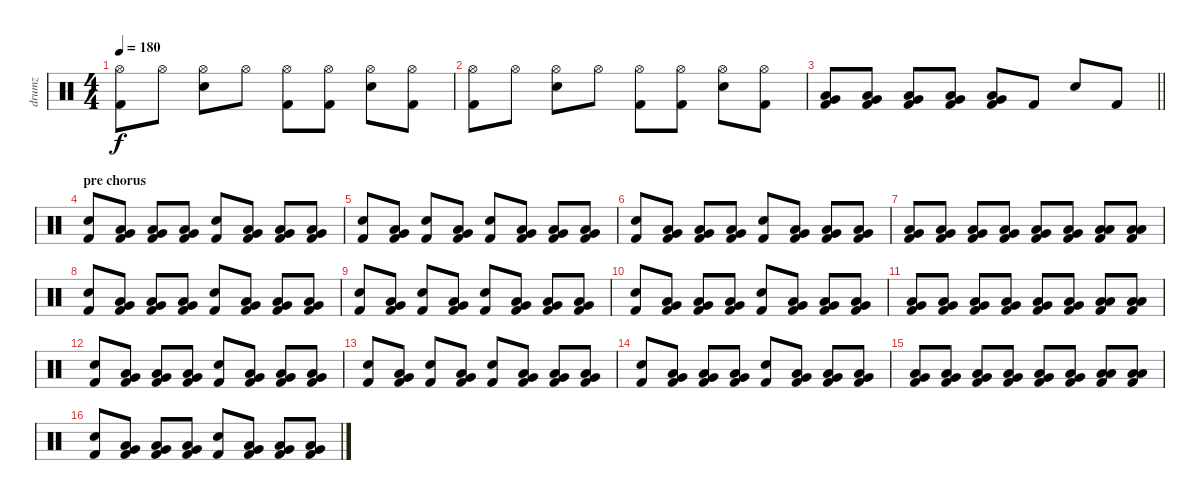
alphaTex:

\track ("drumz" "drumz") {instrument percussion}
\staff {score}
\articulation defaults
\ts (4 4)
\tempo 180
\clef neutral
\ks c
("Hi-Hat (open)" "Kick (hit) 2").8{dy f} "Hi-Hat (open)".8 ("Hi-Hat (open)" "Electric Snare (hit)").8 "Hi-Hat (open)".8 ("Hi-Hat (open)" "Kick (hit) 2").8 ("Hi-Hat (open)" "Kick (hit) 2").8 ("Hi-Hat (open)" "Electric Snare (hit)").8 ("Hi-Hat (open)" "Kick (hit) 2").8 |
("Hi-Hat (open)" "Kick (hit) 2").8 "Hi-Hat (open)".8 ("Hi-Hat (open)" "Electric Snare (hit)").8 "Hi-Hat (open)".8 ("Hi-Hat (open)" "Kick (hit) 2").8 ("Hi-Hat (open)" "Kick (hit) 2").8 ("Hi-Hat (open)" "Electric Snare (hit)").8 ("Hi-Hat (open)" "Kick (hit) 2").8 |
\barLineRight lightlight
("Low Tom (hit)" "Very Low Tom (hit)" "Kick (hit) 2").8 ("Low Tom (hit)" "Very Low Tom (hit)" "Kick (hit) 2").8 ("Low Tom (hit)" "Very Low Tom (hit)" "Kick (hit) 2").8 ("Low Tom (hit)" "Very Low Tom (hit)" "Kick (hit) 2").8 ("Very Low Tom (hit)" "Low Floor Tom (hit)" "Kick (hit) 2").8 "Kick (hit) 2".8 "Electric Snare (hit)".8 "Kick (hit) 2".8 |
\section ("" "pre chorus")
("Electric Snare (hit)" "Kick (hit) 2").8 ("Very Low Tom (hit)" "Low Floor Tom (hit)" "Kick (hit) 2").8 ("Very Low Tom (hit)" "Low Floor Tom (hit)" "Kick (hit) 2").8 ("Very Low Tom (hit)" "Low Floor Tom (hit)" "Kick (hit) 2").8 ("Electric Snare (hit)" "Kick (hit) 2").8 ("Very Low Tom (hit)" "Low Floor Tom (hit)" "Kick (hit) 2").8 ("Very Low Tom (hit)" "Low Floor Tom (hit)" "Kick (hit) 2").8 ("Very Low Tom (hit)" "Low Floor Tom (hit)" "Kick (hit) 2").8 |
("Electric Snare (hit)" "Kick (hit) 2").8 ("Very Low Tom (hit)" "Low Floor Tom (hit)" "Kick (hit) 2").8 ("Electric Snare (hit)" "Kick (hit) 2").8 ("Very Low Tom (hit)" "Low Floor Tom (hit)" "Kick (hit) 2").8 ("Electric Snare (hit)" "Kick (hit) 2").8 ("Very Low Tom (hit)" "Low Floor Tom (hit)" "Kick (hit) 2").8 ("Very Low Tom (hit)" "Low Floor Tom (hit)" "Kick (hit) 2").8 ("Very Low Tom (hit)" "Low Floor Tom (hit)" "Kick (hit) 2").8 |
("Electric Snare (hit)" "Kick (hit) 2").8 ("Very Low Tom (hit)" "Low Floor Tom (hit)" "Kick (hit) 2").8 ("Very Low Tom (hit)" "Low Floor Tom (hit)" "Kick (hit) 2").8 ("Very Low Tom (hit)" "Low Floor Tom (hit)" "Kick (hit) 2").8 ("Electric Snare (hit)" "Kick (hit) 2").8 ("Very Low Tom (hit)" "Low Floor Tom (hit)" "Kick (hit) 2").8 ("Very Low Tom (hit)" "Low Floor Tom (hit)" "Kick (hit) 2").8 ("Very Low Tom (hit)" "Low Floor Tom (hit)" "Kick (hit) 2").8 |
("Low Tom (hit)" "Very Low Tom (hit)" "Kick (hit) 2").8 ("Low Tom (hit)" "Very Low Tom (hit)" "Kick (hit) 2").8 ("Low Tom (hit)" "Very Low Tom (hit)" "Kick (hit) 2").8 ("Low Tom (hit)" "Very Low Tom (hit)" "Kick (hit) 2").8 ("Very Low Tom (hit)" "Low Floor Tom (hit)" "Kick (hit) 2").8 ("Very Low Tom (hit)" "Low Floor Tom (hit)" "Kick (hit) 2").8 ("Low Floor Tom (hit)" "Low Floor Tom (hit)" "Kick (hit) 2").8 ("Low Floor Tom (hit)" "Low Floor Tom (hit)" "Kick (hit) 2").8 |
("Electric Snare (hit)" "Kick (hit) 2").8 ("Very Low Tom (hit)" "Low Floor Tom (hit)" "Kick (hit) 2").8 ("Very Low Tom (hit)" "Low Floor Tom (hit)" "Kick (hit) 2").8 ("Very Low Tom (hit)" "Low Floor Tom (hit)" "Kick (hit) 2").8 ("Electric Snare (hit)" "Kick (hit) 2").8 ("Very Low Tom (hit)" "Low Floor Tom (hit)" "Kick (hit) 2").8 ("Very Low Tom (hit)" "Low Floor Tom (hit)" "Kick (hit) 2").8 ("Very Low Tom (hit)" "Low Floor Tom (hit)" "Kick (hit) 2").8 |
("Electric Snare (hit)" "Kick (hit) 2").8 ("Very Low Tom (hit)" "Low Floor Tom (hit)" "Kick (hit) 2").8 ("Electric Snare (hit)" "Kick (hit) 2").8 ("Very Low Tom (hit)" "Low Floor Tom (hit)" "Kick (hit) 2").8 ("Electric Snare (hit)" "Kick (hit) 2").8 ("Very Low Tom (hit)" "Low Floor Tom (hit)" "Kick (hit) 2").8 ("Very Low Tom (hit)" "Low Floor Tom (hit)" "Kick (hit) 2").8 ("Very Low Tom (hit)" "Low Floor Tom (hit)" "Kick (hit) 2").8 |
("Electric Snare (hit)" "Kick (hit) 2").8 ("Very Low Tom (hit)" "Low Floor Tom (hit)" "Kick (hit) 2").8 ("Very Low Tom (hit)" "Low Floor Tom (hit)" "Kick (hit) 2").8 ("Very Low Tom (hit)" "Low Floor Tom (hit)" "Kick (hit) 2").8 ("Electric Snare (hit)" "Kick (hit) 2").8 ("Very Low Tom (hit)" "Low Floor Tom (hit)" "Kick (hit) 2").8 ("Very Low Tom (hit)" "Low Floor Tom (hit)" "Kick (hit) 2").8 ("Very Low Tom (hit)" "Low Floor Tom (hit)" "Kick (hit) 2").8 |
("Low Tom (hit)" "Very Low Tom (hit)" "Kick (hit) 2").8 ("Low Tom (hit)" "Very Low Tom (hit)" "Kick (hit) 2").8 ("Low Tom (hit)" "Very Low Tom (hit)" "Kick (hit) 2").8 ("Low Tom (hit)" "Very Low Tom (hit)" "Kick (hit) 2").8 ("Very Low Tom (hit)" "Low Floor Tom (hit)" "Kick (hit) 2").8 ("Very Low Tom (hit)" "Low Floor Tom (hit)" "Kick (hit) 2").8 ("Low Floor Tom (hit)" "Low Floor Tom (hit)" "Kick (hit) 2").8 ("Low Floor Tom (hit)" "Low Floor Tom (hit)" "Kick (hit) 2").8 |
("Electric Snare (hit)" "Kick (hit) 2").8 ("Very Low Tom (hit)" "Low Floor Tom (hit)" "Kick (hit) 2").8 ("Very Low Tom (hit)" "Low Floor Tom (hit)" "Kick (hit) 2").8 ("Very Low Tom (hit)" "Low Floor Tom (hit)" "Kick (hit) 2").8 ("Electric Snare (hit)" "Kick (hit) 2").8 ("Very Low Tom (hit)" "Low Floor Tom (hit)" "Kick (hit) 2").8 ("Very Low Tom (hit)" "Low Floor Tom (hit)" "Kick (hit) 2").8 ("Very Low Tom (hit)" "Low Floor Tom (hit)" "Kick (hit) 2").8 |
("Electric Snare (hit)" "Kick (hit) 2").8 ("Very Low Tom (hit)" "Low Floor Tom (hit)" "Kick (hit) 2").8 ("Electric Snare (hit)" "Kick (hit) 2").8 ("Very Low Tom (hit)" "Low Floor Tom (hit)" "Kick (hit) 2").8 ("Electric Snare (hit)" "Kick (hit) 2").8 ("Very Low Tom (hit)" "Low Floor Tom (hit)" "Kick (hit) 2").8 ("Very Low Tom (hit)" "Low Floor Tom (hit)" "Kick (hit) 2").8 ("Very Low Tom (hit)" "Low Floor Tom (hit)" "Kick (hit) 2").8 |
("Electric Snare (hit)" "Kick (hit) 2").8 ("Very Low Tom (hit)" "Low Floor Tom (hit)" "Kick (hit) 2").8 ("Very Low Tom (hit)" "Low Floor Tom (hit)" "Kick (hit) 2").8 ("Very Low Tom (hit)" "Low Floor Tom (hit)" "Kick (hit) 2").8 ("Electric Snare (hit)" "Kick (hit) 2").8 ("Very Low Tom (hit)" "Low Floor Tom (hit)" "Kick (hit) 2").8 ("Very Low Tom (hit)" "Low Floor Tom (hit)" "Kick (hit) 2").8 ("Very Low Tom (hit)" "Low Floor Tom (hit)" "Kick (hit) 2").8 |
("Low Tom (hit)" "Very Low Tom (hit)" "Kick (hit) 2").8 ("Low Tom (hit)" "Very Low Tom (hit)" "Kick (hit) 2").8 ("Low Tom (hit)" "Very Low Tom (hit)" "Kick (hit) 2").8 ("Low Tom (hit)" "Very Low Tom (hit)" "Kick (hit) 2").8 ("Very Low Tom (hit)" "Low Floor Tom (hit)" "Kick (hit) 2").8 ("Very Low Tom (hit)" "Low Floor Tom (hit)" "Kick (hit) 2").8 ("Low Floor Tom (hit)" "Low Floor Tom (hit)" "Kick (hit) 2").8 ("Low Floor Tom (hit)" "Low Floor Tom (hit)" "Kick (hit) 2").8 |
("Electric Snare (hit)" "Kick (hit) 2").8 ("Very Low Tom (hit)" "Low Floor Tom (hit)" "Kick (hit) 2").8 ("Very Low Tom (hit)" "Low Floor Tom (hit)" "Kick (hit) 2").8 ("Very Low Tom (hit)" "Low Floor Tom (hit)" "Kick (hit) 2").8 ("Electric Snare (hit)" "Kick (hit) 2").8 ("Very Low Tom (hit)" "Low Floor Tom (hit)" "Kick (hit) 2").8 ("Very Low Tom (hit)" "Low Floor Tom (hit)" "Kick (hit) 2").8 ("Very Low Tom (hit)" "Low Floor Tom (hit)" "Kick (hit) 2").8
